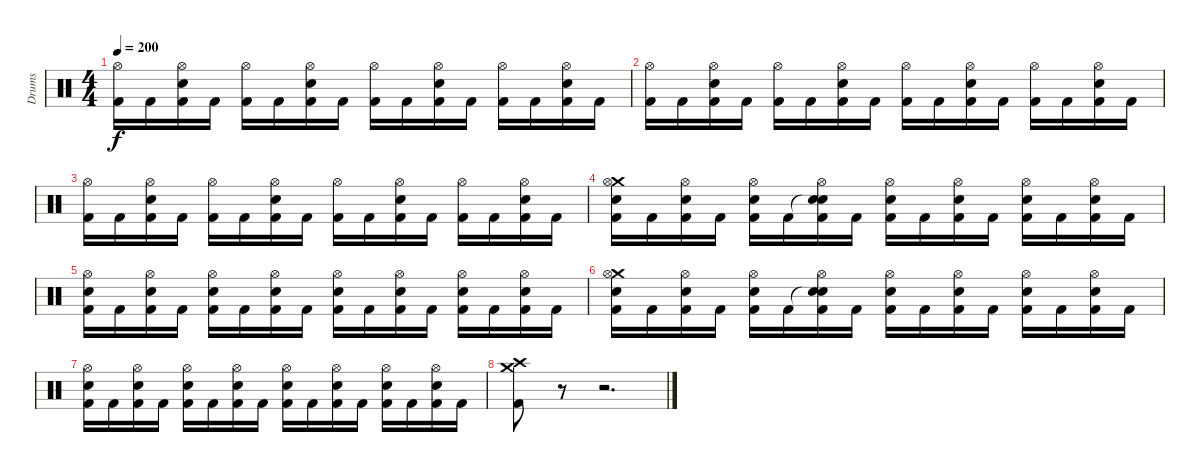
\track ("Drums" "Drums") {instrument percussion}
\staff {score}
\articulation defaults
\ts (4 4)
\tempo 200
\clef neutral
\ks c
("Hi-Hat (open)" "Kick (hit) 2").16{dy f} "Kick (hit) 2".16 ("Snare (hit) 2" "Hi-Hat (open)" "Kick (hit) 2").16 "Kick (hit) 2".16 ("Hi-Hat (open)" "Kick (hit) 2").16 "Kick (hit) 2".16 ("Snare (hit) 2" "Hi-Hat (open)" "Kick (hit) 2").16 "Kick (hit) 2".16 ("Hi-Hat (open)" "Kick (hit) 2").16 "Kick (hit) 2".16 ("Snare (hit) 2" "Hi-Hat (open)" "Kick (hit) 2").16 "Kick (hit) 2".16 ("Hi-Hat (open)" "Kick (hit) 2").16 "Kick (hit) 2".16 ("Snare (hit) 2" "Hi-Hat (open)" "Kick (hit) 2").16 "Kick (hit) 2".16 |
("Hi-Hat (open)" "Kick (hit) 2").16 "Kick (hit) 2".16 ("Snare (hit) 2" "Hi-Hat (open)" "Kick (hit) 2").16 "Kick (hit) 2".16 ("Hi-Hat (open)" "Kick (hit) 2").16 "Kick (hit) 2".16 ("Snare (hit) 2" "Hi-Hat (open)" "Kick (hit) 2").16 "Kick (hit) 2".16 ("Hi-Hat (open)" "Kick (hit) 2").16 "Kick (hit) 2".16 ("Snare (hit) 2" "Hi-Hat (open)" "Kick (hit) 2").16 "Kick (hit) 2".16 ("Hi-Hat (open)" "Kick (hit) 2").16 "Kick (hit) 2".16 ("Snare (hit) 2" "Hi-Hat (open)" "Kick (hit) 2").16 "Kick (hit) 2".16 |
("Hi-Hat (open)" "Kick (hit) 2").16 "Kick (hit) 2".16 ("Snare (hit) 2" "Hi-Hat (open)" "Kick (hit) 2").16 "Kick (hit) 2".16 ("Hi-Hat (open)" "Kick (hit) 2").16 "Kick (hit) 2".16 ("Snare (hit) 2" "Hi-Hat (open)" "Kick (hit) 2").16 "Kick (hit) 2".16 ("Hi-Hat (open)" "Kick (hit) 2").16 "Kick (hit) 2".16 ("Snare (hit) 2" "Hi-Hat (open)" "Kick (hit) 2").16 "Kick (hit) 2".16 ("Hi-Hat (open)" "Kick (hit) 2").16 "Kick (hit) 2".16 ("Snare (hit) 2" "Hi-Hat (open)" "Kick (hit) 2").16 "Kick (hit) 2".16 |
("Crash medium (hit)" "Snare (hit) 2" "Hi-Hat (open)" "Kick (hit) 2").16 "Kick (hit) 2".16 ("Snare (hit) 2" "Hi-Hat (open)" "Kick (hit) 2").16 "Kick (hit) 2".16 ("Snare (hit) 2" "Hi-Hat (open)" "Kick (hit) 2").16 "Kick (hit) 2".16 ("Snare (hit)"{t} "Snare (hit) 2" "Hi-Hat (open)" "Kick (hit) 2").16 "Kick (hit) 2".16 ("Snare (hit) 2" "Hi-Hat (open)" "Kick (hit) 2").16 "Kick (hit) 2".16 ("Snare (hit) 2" "Hi-Hat (open)" "Kick (hit) 2").16 "Kick (hit) 2".16 ("Snare (hit) 2" "Hi-Hat (open)" "Kick (hit) 2").16 "Kick (hit) 2".16 ("Snare (hit) 2" "Hi-Hat (open)" "Kick (hit) 2").16 "Kick (hit) 2".16 |
("Snare (hit) 2" "Hi-Hat (open)" "Kick (hit) 2").16 "Kick (hit) 2".16 ("Snare (hit) 2" "Hi-Hat (open)" "Kick (hit) 2").16 "Kick (hit) 2".16 ("Snare (hit) 2" "Hi-Hat (open)" "Kick (hit) 2").16 "Kick (hit) 2".16 ("Snare (hit) 2" "Hi-Hat (open)" "Kick (hit) 2").16 "Kick (hit) 2".16 ("Snare (hit) 2" "Hi-Hat (open)" "Kick (hit) 2").16 "Kick (hit) 2".16 ("Snare (hit) 2" "Hi-Hat (open)" "Kick (hit) 2").16 "Kick (hit) 2".16 ("Snare (hit) 2" "Hi-Hat (open)" "Kick (hit) 2").16 "Kick (hit) 2".16 ("Snare (hit) 2" "Hi-Hat (open)" "Kick (hit) 2").16 "Kick (hit) 2".16 |
("Crash medium (hit)" "Snare (hit) 2" "Hi-Hat (open)" "Kick (hit) 2").16 "Kick (hit) 2".16 ("Snare (hit) 2" "Hi-Hat (open)" "Kick (hit) 2").16 "Kick (hit) 2".16 ("Snare (hit) 2" "Hi-Hat (open)" "Kick (hit) 2").16 "Kick (hit) 2".16 ("Snare (hit)"{t} "Snare (hit) 2" "Hi-Hat (open)" "Kick (hit) 2").16 "Kick (hit) 2".16 ("Snare (hit) 2" "Hi-Hat (open)" "Kick (hit) 2").16 "Kick (hit) 2".16 ("Snare (hit) 2" "Hi-Hat (open)" "Kick (hit) 2").16 "Kick (hit) 2".16 ("Snare (hit) 2" "Hi-Hat (open)" "Kick (hit) 2").16 "Kick (hit) 2".16 ("Snare (hit) 2" "Hi-Hat (open)" "Kick (hit) 2").16 "Kick (hit) 2".16 |
("Snare (hit) 2" "Hi-Hat (open)" "Kick (hit) 2").16 "Kick (hit) 2".16 ("Snare (hit) 2" "Hi-Hat (open)" "Kick (hit) 2").16 "Kick (hit) 2".16 ("Snare (hit) 2" "Hi-Hat (open)" "Kick (hit) 2").16 "Kick (hit) 2".16 ("Snare (hit) 2" "Hi-Hat (open)" "Kick (hit) 2").16 "Kick (hit) 2".16 ("Snare (hit) 2" "Hi-Hat (open)" "Kick (hit) 2").16 "Kick (hit) 2".16 ("Snare (hit) 2" "Hi-Hat (open)" "Kick (hit) 2").16 "Kick (hit) 2".16 ("Snare (hit) 2" "Hi-Hat (open)" "Kick (hit) 2").16 "Kick (hit) 2".16 ("Snare (hit) 2" "Hi-Hat (open)" "Kick (hit) 2").16 "Kick (hit) 2".16 |
("Crash high (hit)" "Crash medium (hit)" "Kick (hit) 2").8 r.8 r.2{d}
